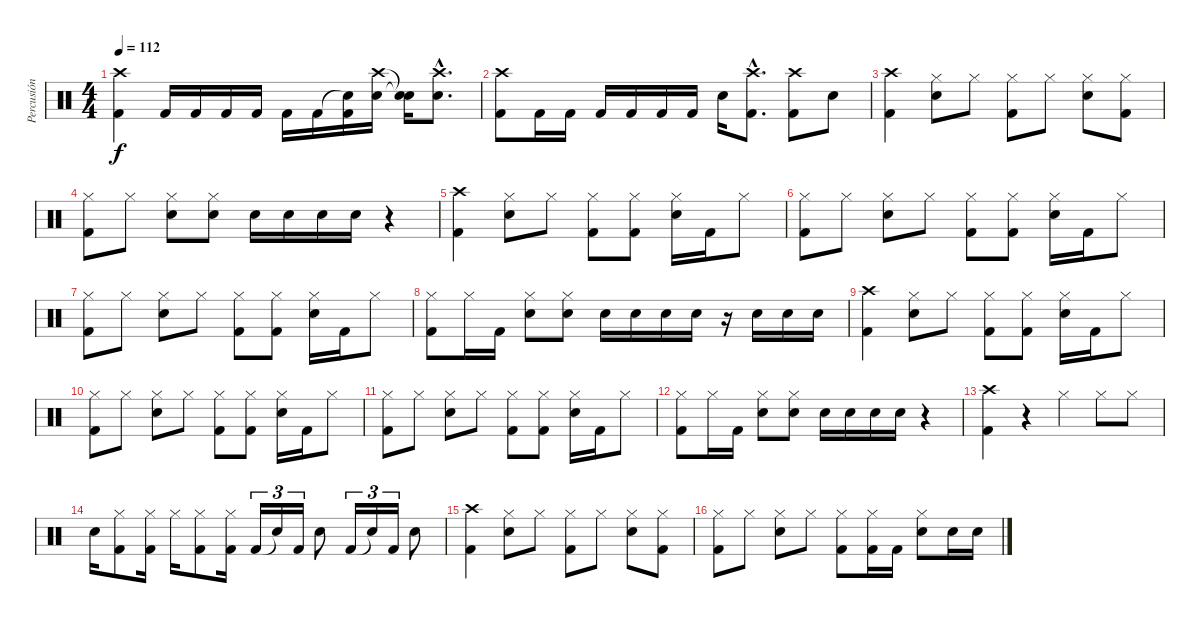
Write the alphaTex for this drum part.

\track ("Percusión" "Percusión") {instrument percussion}
\staff {score}
\articulation defaults
\ts (4 4)
\tempo 112
\clef neutral
\ks c
("Crash high (hit)" "Kick (hit) 2").4{dy f} "Kick (hit) 2".16 "Kick (hit) 2".16 "Kick (hit) 2".16 "Kick (hit) 2".16 "Kick (hit) 2".16 "Kick (hit) 2".16 ("Snare (hit)"{t} "Kick (hit) 2").16 ("Crash high (hit)" "Electric Snare (hit)").16 ("Snare (hit)"{t} "Snare (hit)"{t}).16 ("Crash high (hit)"{hac} "Electric Snare (hit)"{hac}).8{d} |
("Crash high (hit)" "Kick (hit) 2").8 "Kick (hit) 2".16 "Kick (hit) 2".16 "Kick (hit) 2".16 "Kick (hit) 2".16 "Kick (hit) 2".16 "Kick (hit) 2".16 "Electric Snare (hit)".16 ("Crash high (hit)"{hac} "Kick (hit) 2"{hac}).8{d} ("Crash high (hit)" "Kick (hit) 2").8 "Electric Snare (hit)".8 |
("Crash high (hit)" "Kick (hit) 2").4 ("Hi-Hat (closed)" "Electric Snare (hit)").8 "Hi-Hat (closed)".8 ("Hi-Hat (closed)" "Kick (hit) 2").8 "Hi-Hat (closed)".8 ("Hi-Hat (closed)" "Electric Snare (hit)").8 ("Hi-Hat (closed)" "Kick (hit) 2").8 |
("Hi-Hat (closed)" "Kick (hit) 2").8 "Hi-Hat (closed)".8 ("Hi-Hat (closed)" "Electric Snare (hit)").8 ("Hi-Hat (closed)" "Electric Snare (hit)").8 "Electric Snare (hit)".16 "Electric Snare (hit)".16 "Electric Snare (hit)".16 "Electric Snare (hit)".16 r.4 |
("Crash high (hit)" "Kick (hit) 2").4 ("Hi-Hat (closed)" "Electric Snare (hit)").8 "Hi-Hat (closed)".8 ("Hi-Hat (closed)" "Kick (hit) 2").8 ("Hi-Hat (closed)" "Kick (hit) 2").8 ("Hi-Hat (closed)" "Electric Snare (hit)").16 "Kick (hit) 2".16 "Hi-Hat (closed)".8 |
("Hi-Hat (closed)" "Kick (hit) 2").8 "Hi-Hat (closed)".8 ("Hi-Hat (closed)" "Electric Snare (hit)").8 "Hi-Hat (closed)".8 ("Hi-Hat (closed)" "Kick (hit) 2").8 ("Hi-Hat (closed)" "Kick (hit) 2").8 ("Hi-Hat (closed)" "Electric Snare (hit)").16 "Kick (hit) 2".16 "Hi-Hat (closed)".8 |
("Hi-Hat (closed)" "Kick (hit) 2").8 "Hi-Hat (closed)".8 ("Hi-Hat (closed)" "Electric Snare (hit)").8 "Hi-Hat (closed)".8 ("Hi-Hat (closed)" "Kick (hit) 2").8 ("Hi-Hat (closed)" "Kick (hit) 2").8 ("Hi-Hat (closed)" "Electric Snare (hit)").16 "Kick (hit) 2".16 "Hi-Hat (closed)".8 |
("Hi-Hat (closed)" "Kick (hit) 2").8 "Hi-Hat (closed)".16 "Kick (hit) 2".16 ("Hi-Hat (closed)" "Electric Snare (hit)").8 ("Hi-Hat (closed)" "Electric Snare (hit)").8 "Electric Snare (hit)".16 "Electric Snare (hit)".16 "Electric Snare (hit)".16 "Electric Snare (hit)".16 r.16 "Electric Snare (hit)".16 "Electric Snare (hit)".16 "Electric Snare (hit)".16 |
("Crash high (hit)" "Kick (hit) 2").4 ("Hi-Hat (closed)" "Electric Snare (hit)").8 "Hi-Hat (closed)".8 ("Hi-Hat (closed)" "Kick (hit) 2").8 ("Hi-Hat (closed)" "Kick (hit) 2").8 ("Hi-Hat (closed)" "Electric Snare (hit)").16 "Kick (hit) 2".16 "Hi-Hat (closed)".8 |
("Hi-Hat (closed)" "Kick (hit) 2").8 "Hi-Hat (closed)".8 ("Hi-Hat (closed)" "Electric Snare (hit)").8 "Hi-Hat (closed)".8 ("Hi-Hat (closed)" "Kick (hit) 2").8 ("Hi-Hat (closed)" "Kick (hit) 2").8 ("Hi-Hat (closed)" "Electric Snare (hit)").16 "Kick (hit) 2".16 "Hi-Hat (closed)".8 |
("Hi-Hat (closed)" "Kick (hit) 2").8 "Hi-Hat (closed)".8 ("Hi-Hat (closed)" "Electric Snare (hit)").8 "Hi-Hat (closed)".8 ("Hi-Hat (closed)" "Kick (hit) 2").8 ("Hi-Hat (closed)" "Kick (hit) 2").8 ("Hi-Hat (closed)" "Electric Snare (hit)").16 "Kick (hit) 2".16 "Hi-Hat (closed)".8 |
("Hi-Hat (closed)" "Kick (hit) 2").8 "Hi-Hat (closed)".16 "Kick (hit) 2".16 ("Hi-Hat (closed)" "Electric Snare (hit)").8 ("Hi-Hat (closed)" "Electric Snare (hit)").8 "Electric Snare (hit)".16 "Electric Snare (hit)".16 "Electric Snare (hit)".16 "Electric Snare (hit)".16 r.4 |
("Crash high (hit)" "Kick (hit) 2").4 r.4 "Hi-Hat (closed)".4 "Hi-Hat (closed)".8 "Hi-Hat (closed)".8 |
"Electric Snare (hit)".16 ("Hi-Hat (closed)" "Kick (hit) 2").8 ("Hi-Hat (closed)" "Kick (hit) 2").16 "Hi-Hat (closed)".16 ("Hi-Hat (closed)" "Kick (hit) 2").8 ("Hi-Hat (closed)" "Kick (hit) 2").16 "Kick (hit) 2".16{tu (3 2)} "Snare (hit)"{t}.16{tu (3 2)} "Kick (hit) 2".16{tu (3 2)} "Electric Snare (hit)".8 "Kick (hit) 2".16{tu (3 2)} "Snare (hit)"{t}.16{tu (3 2)} "Kick (hit) 2".16{tu (3 2)} "Electric Snare (hit)".8 |
("Crash high (hit)" "Kick (hit) 2").4 ("Hi-Hat (closed)" "Electric Snare (hit)").8 "Hi-Hat (closed)".8 ("Hi-Hat (closed)" "Kick (hit) 2").8 "Hi-Hat (closed)".8 ("Hi-Hat (closed)" "Electric Snare (hit)").8 ("Hi-Hat (closed)" "Kick (hit) 2").8 |
("Hi-Hat (closed)" "Kick (hit) 2").8 "Hi-Hat (closed)".8 ("Hi-Hat (closed)" "Electric Snare (hit)").8 "Hi-Hat (closed)".8 ("Hi-Hat (closed)" "Kick (hit) 2").8 ("Hi-Hat (closed)" "Kick (hit) 2").16 "Kick (hit) 2".16 ("Hi-Hat (closed)" "Electric Snare (hit)").8 "Electric Snare (hit)".16 "Electric Snare (hit)".16
